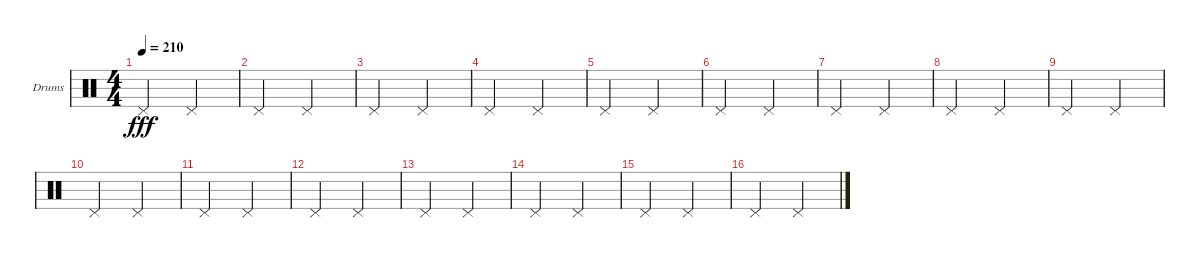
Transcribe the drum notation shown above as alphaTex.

\defaultSystemsLayout 4
\bracketExtendMode groupsimilarinstruments
\firstSystemTrackNameOrientation horizontal
\otherSystemsTrackNameOrientation horizontal
\track ("Dan Johnson (Drums)" "Drums") {instrument percussion}
\staff {score}
\articulation defaults
\ts (4 4)
\tempo 210
\clef neutral
\ks c "Pedal Hi-Hat (hit)".2{dy fff} "Pedal Hi-Hat (hit)".2
|
"Pedal Hi-Hat (hit)".2 "Pedal Hi-Hat (hit)".2 |
"Pedal Hi-Hat (hit)".2 "Pedal Hi-Hat (hit)".2 |
"Pedal Hi-Hat (hit)".2 "Pedal Hi-Hat (hit)".2 |
"Pedal Hi-Hat (hit)".2 "Pedal Hi-Hat (hit)".2 |
"Pedal Hi-Hat (hit)".2 "Pedal Hi-Hat (hit)".2 |
"Pedal Hi-Hat (hit)".2 "Pedal Hi-Hat (hit)".2 |
"Pedal Hi-Hat (hit)".2 "Pedal Hi-Hat (hit)".2 |
"Pedal Hi-Hat (hit)".2 "Pedal Hi-Hat (hit)".2 |
"Pedal Hi-Hat (hit)".2 "Pedal Hi-Hat (hit)".2 |
"Pedal Hi-Hat (hit)".2 "Pedal Hi-Hat (hit)".2 |
"Pedal Hi-Hat (hit)".2 "Pedal Hi-Hat (hit)".2 |
"Pedal Hi-Hat (hit)".2 "Pedal Hi-Hat (hit)".2 |
"Pedal Hi-Hat (hit)".2 "Pedal Hi-Hat (hit)".2 |
"Pedal Hi-Hat (hit)".2 "Pedal Hi-Hat (hit)".2 |
"Pedal Hi-Hat (hit)".2 "Pedal Hi-Hat (hit)".2
